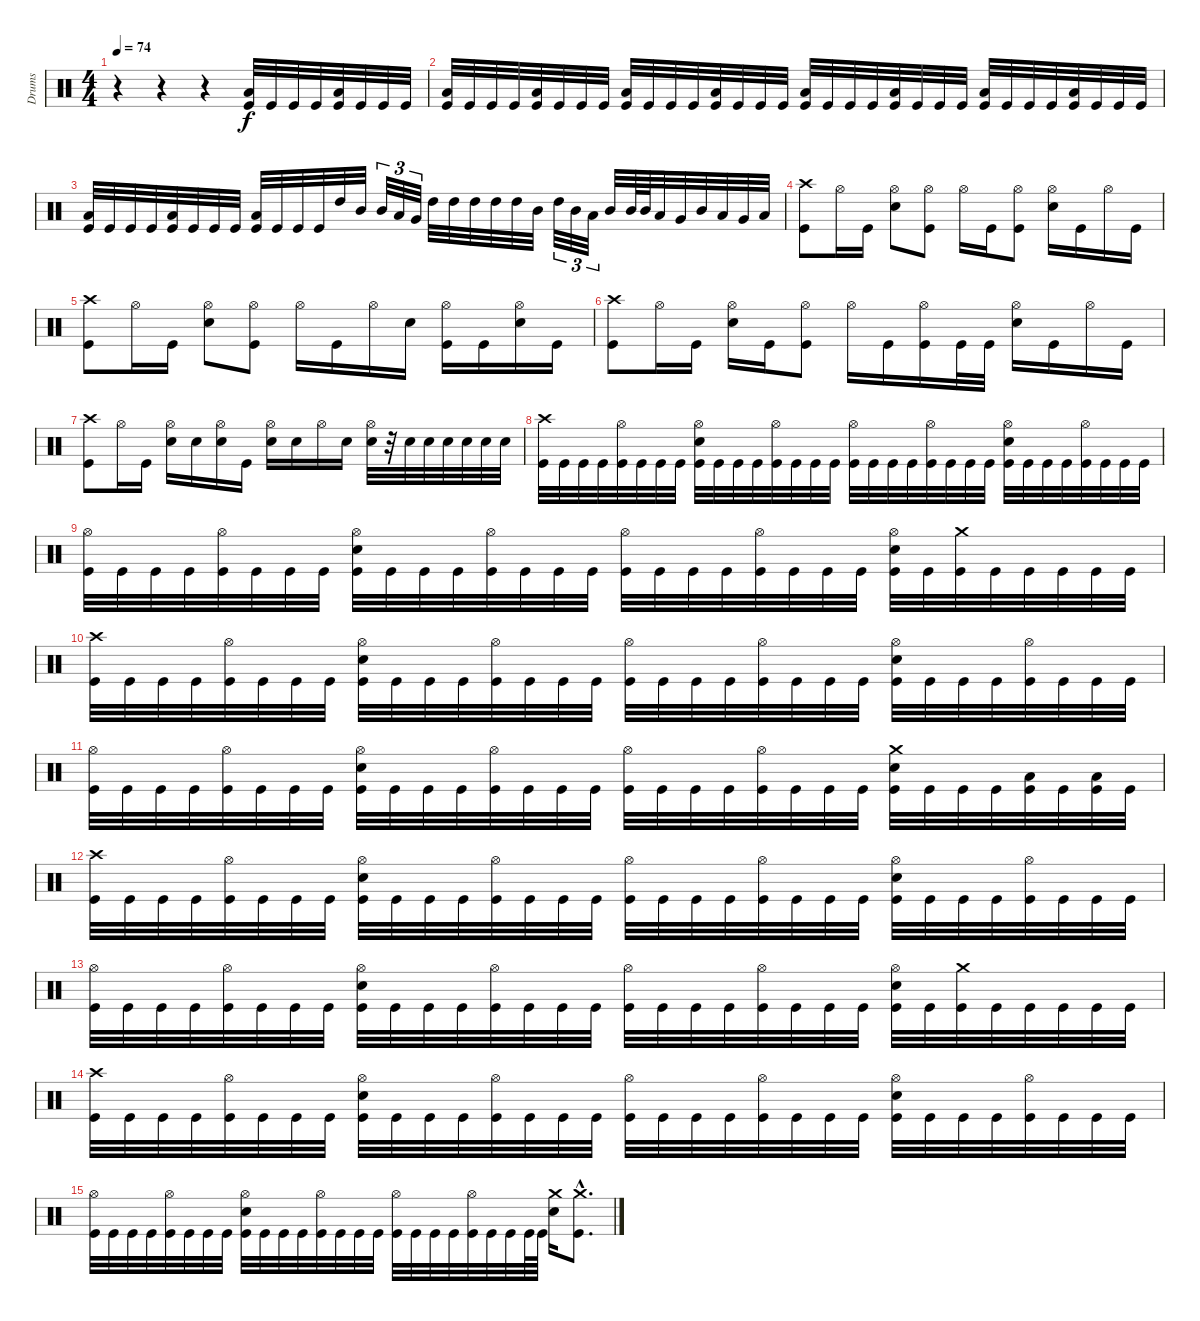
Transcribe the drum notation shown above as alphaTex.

\track ("Drums" "Drums") {instrument percussion}
\staff {score}
\articulation defaults
\ts (4 4)
\tempo 74
\clef neutral
\ks c
r.4{dy f volume 0} r.4 r.4 ("Low Floor Tom (hit)" "Kick (hit)").32{volume 13} "Kick (hit)".32 "Kick (hit)".32 "Kick (hit)".32 ("Low Floor Tom (hit)" "Kick (hit)").32 "Kick (hit)".32 "Kick (hit)".32 "Kick (hit)".32 |
("Low Floor Tom (hit)" "Kick (hit)").32 "Kick (hit)".32 "Kick (hit)".32 "Kick (hit)".32 ("Low Floor Tom (hit)" "Kick (hit)").32 "Kick (hit)".32 "Kick (hit)".32 "Kick (hit)".32 ("Low Floor Tom (hit)" "Kick (hit)").32 "Kick (hit)".32 "Kick (hit)".32 "Kick (hit)".32 ("Low Floor Tom (hit)" "Kick (hit)").32 "Kick (hit)".32 "Kick (hit)".32 "Kick (hit)".32 ("Low Floor Tom (hit)" "Kick (hit)").32 "Kick (hit)".32 "Kick (hit)".32 "Kick (hit)".32 ("Low Floor Tom (hit)" "Kick (hit)").32 "Kick (hit)".32 "Kick (hit)".32 "Kick (hit)".32 ("Low Floor Tom (hit)" "Kick (hit)").32 "Kick (hit)".32 "Kick (hit)".32 "Kick (hit)".32 ("Low Floor Tom (hit)" "Kick (hit)").32 "Kick (hit)".32 "Kick (hit)".32 "Kick (hit)".32 |
("Low Floor Tom (hit)" "Kick (hit)").32{volume 13} "Kick (hit)".32 "Kick (hit)".32 "Kick (hit)".32 ("Low Floor Tom (hit)" "Kick (hit)").32 "Kick (hit)".32 "Kick (hit)".32 "Kick (hit)".32 ("Low Floor Tom (hit)" "Kick (hit)").32 "Kick (hit)".32 "Kick (hit)".32 "Kick (hit)".32 "High Tom (hit)".32 "Mid Tom (hit)".32 "Mid Tom (hit)".32{tu (3 2)} "Low Tom (hit)".32{tu (3 2)} "Very Low Tom (hit)".32{tu (3 2)} "High Tom (hit)".32 "High Tom (hit)".32 "High Tom (hit)".32 "High Tom (hit)".32 "High Tom (hit)".32 "Mid Tom (hit)".32 "High Tom (hit)".32{tu (3 2)} "Mid Tom (hit)".32{tu (3 2)} "Low Tom (hit)".32{tu (3 2)} "Mid Tom (hit)".32 "Mid Tom (hit)".64 "Mid Tom (hit)".64 "Low Tom (hit)".32 "Very Low Tom (hit)".32 "Mid Tom (hit)".32 "Low Tom (hit)".32 "Very Low Tom (hit)".32 "Low Floor Tom (hit)".32 |
\section ("" "")
("Crash high (hit)" "Kick (hit)").8 "Hi-Hat (open)".16 "Kick (hit)".16 ("Hi-Hat (open)" "Snare (hit) 2").8 ("Hi-Hat (open)" "Kick (hit)").8 "Hi-Hat (open)".16 "Kick (hit)".16 ("Hi-Hat (open)" "Kick (hit)").8 ("Hi-Hat (open)" "Snare (hit) 2").16 "Kick (hit)".16 "Hi-Hat (open)".16 "Kick (hit)".16 |
("Crash high (hit)" "Kick (hit)").8 "Hi-Hat (open)".16 "Kick (hit)".16 ("Hi-Hat (open)" "Snare (hit) 2").8 ("Hi-Hat (open)" "Kick (hit)").8 "Hi-Hat (open)".16 "Kick (hit)".16 "Hi-Hat (open)".16 "Snare (hit) 2".16 ("Hi-Hat (open)" "Kick (hit)").16 "Kick (hit)".16 ("Hi-Hat (open)" "Snare (hit) 2").16 "Kick (hit)".16 |
("Crash high (hit)" "Kick (hit)").8 "Hi-Hat (open)".16 "Kick (hit)".16 ("Hi-Hat (open)" "Snare (hit) 2").16 "Kick (hit)".16 ("Hi-Hat (open)" "Kick (hit)").8 "Hi-Hat (open)".16 "Kick (hit)".16 ("Hi-Hat (open)" "Kick (hit)").16 "Kick (hit)".32 "Kick (hit)".32 ("Hi-Hat (open)" "Snare (hit) 2").16 "Kick (hit)".16 "Hi-Hat (open)".16 "Kick (hit)".16 |
("Crash high (hit)" "Kick (hit)").8 "Hi-Hat (open)".16 "Kick (hit)".16 ("Hi-Hat (open)" "Snare (hit) 2").16 "Snare (hit) 2".16 ("Hi-Hat (open)" "Snare (hit) 2").16 "Kick (hit)".16 ("Hi-Hat (open)" "Snare (hit) 2").16 "Snare (hit) 2".16 "Hi-Hat (open)".16 "Snare (hit) 2".16 ("Hi-Hat (open)" "Snare (hit) 2").32 r.32 "Snare (hit) 2".32 "Snare (hit) 2".32 "Snare (hit) 2".32 "Snare (hit) 2".32 "Snare (hit) 2".32 "Snare (hit) 2".32 |
\section ("" "")
("Crash high (hit)" "Kick (hit)").32 "Kick (hit)".32 "Kick (hit)".32 "Kick (hit)".32 ("Hi-Hat (open)" "Kick (hit)").32 "Kick (hit)".32 "Kick (hit)".32 "Kick (hit)".32 ("Hi-Hat (open)" "Snare (hit) 2" "Kick (hit)").32 "Kick (hit)".32 "Kick (hit)".32 "Kick (hit)".32 ("Hi-Hat (open)" "Kick (hit)").32 "Kick (hit)".32 "Kick (hit)".32 "Kick (hit)".32 ("Hi-Hat (open)" "Kick (hit)").32 "Kick (hit)".32 "Kick (hit)".32 "Kick (hit)".32 ("Hi-Hat (open)" "Kick (hit)").32 "Kick (hit)".32 "Kick (hit)".32 "Kick (hit)".32 ("Hi-Hat (open)" "Snare (hit) 2" "Kick (hit)").32 "Kick (hit)".32 "Kick (hit)".32 "Kick (hit)".32 ("Hi-Hat (open)" "Kick (hit)").32 "Kick (hit)".32 "Kick (hit)".32 "Kick (hit)".32 |
("Hi-Hat (open)" "Kick (hit)").32 "Kick (hit)".32 "Kick (hit)".32 "Kick (hit)".32 ("Hi-Hat (open)" "Kick (hit)").32 "Kick (hit)".32 "Kick (hit)".32 "Kick (hit)".32 ("Hi-Hat (open)" "Snare (hit) 2" "Kick (hit)").32 "Kick (hit)".32 "Kick (hit)".32 "Kick (hit)".32 ("Hi-Hat (open)" "Kick (hit)").32 "Kick (hit)".32 "Kick (hit)".32 "Kick (hit)".32 ("Hi-Hat (open)" "Kick (hit)").32 "Kick (hit)".32 "Kick (hit)".32 "Kick (hit)".32 ("Hi-Hat (open)" "Kick (hit)").32 "Kick (hit)".32 "Kick (hit)".32 "Kick (hit)".32 ("Hi-Hat (open)" "Snare (hit) 2" "Kick (hit)").32 "Kick (hit)".32 ("Crash medium (hit)" "Kick (hit)").32 "Kick (hit)".32 "Kick (hit)".32 "Kick (hit)".32 "Kick (hit)".32 "Kick (hit)".32 |
("Crash high (hit)" "Kick (hit)").32 "Kick (hit)".32 "Kick (hit)".32 "Kick (hit)".32 ("Hi-Hat (open)" "Kick (hit)").32 "Kick (hit)".32 "Kick (hit)".32 "Kick (hit)".32 ("Hi-Hat (open)" "Snare (hit) 2" "Kick (hit)").32 "Kick (hit)".32 "Kick (hit)".32 "Kick (hit)".32 ("Hi-Hat (open)" "Kick (hit)").32 "Kick (hit)".32 "Kick (hit)".32 "Kick (hit)".32 ("Hi-Hat (open)" "Kick (hit)").32 "Kick (hit)".32 "Kick (hit)".32 "Kick (hit)".32 ("Hi-Hat (open)" "Kick (hit)").32 "Kick (hit)".32 "Kick (hit)".32 "Kick (hit)".32 ("Hi-Hat (open)" "Snare (hit) 2" "Kick (hit)").32 "Kick (hit)".32 "Kick (hit)".32 "Kick (hit)".32 ("Hi-Hat (open)" "Kick (hit)").32 "Kick (hit)".32 "Kick (hit)".32 "Kick (hit)".32 |
("Hi-Hat (open)" "Kick (hit)").32 "Kick (hit)".32 "Kick (hit)".32 "Kick (hit)".32 ("Hi-Hat (open)" "Kick (hit)").32 "Kick (hit)".32 "Kick (hit)".32 "Kick (hit)".32 ("Hi-Hat (open)" "Snare (hit) 2" "Kick (hit)").32 "Kick (hit)".32 "Kick (hit)".32 "Kick (hit)".32 ("Hi-Hat (open)" "Kick (hit)").32 "Kick (hit)".32 "Kick (hit)".32 "Kick (hit)".32 ("Hi-Hat (open)" "Kick (hit)").32 "Kick (hit)".32 "Kick (hit)".32 "Kick (hit)".32 ("Hi-Hat (open)" "Kick (hit)").32 "Kick (hit)".32 "Kick (hit)".32 "Kick (hit)".32 ("Crash medium (hit)" "Snare (hit) 2" "Kick (hit)").32 "Kick (hit)".32 "Kick (hit)".32 "Kick (hit)".32 ("Low Floor Tom (hit)" "Kick (hit)").32 "Kick (hit)".32 ("Low Floor Tom (hit)" "Kick (hit)").32 "Kick (hit)".32 |
("Crash high (hit)" "Kick (hit)").32 "Kick (hit)".32 "Kick (hit)".32 "Kick (hit)".32 ("Hi-Hat (open)" "Kick (hit)").32 "Kick (hit)".32 "Kick (hit)".32 "Kick (hit)".32 ("Hi-Hat (open)" "Snare (hit) 2" "Kick (hit)").32 "Kick (hit)".32 "Kick (hit)".32 "Kick (hit)".32 ("Hi-Hat (open)" "Kick (hit)").32 "Kick (hit)".32 "Kick (hit)".32 "Kick (hit)".32 ("Hi-Hat (open)" "Kick (hit)").32 "Kick (hit)".32 "Kick (hit)".32 "Kick (hit)".32 ("Hi-Hat (open)" "Kick (hit)").32 "Kick (hit)".32 "Kick (hit)".32 "Kick (hit)".32 ("Hi-Hat (open)" "Snare (hit) 2" "Kick (hit)").32 "Kick (hit)".32 "Kick (hit)".32 "Kick (hit)".32 ("Hi-Hat (open)" "Kick (hit)").32 "Kick (hit)".32 "Kick (hit)".32 "Kick (hit)".32 |
("Hi-Hat (open)" "Kick (hit)").32 "Kick (hit)".32 "Kick (hit)".32 "Kick (hit)".32 ("Hi-Hat (open)" "Kick (hit)").32 "Kick (hit)".32 "Kick (hit)".32 "Kick (hit)".32 ("Hi-Hat (open)" "Snare (hit) 2" "Kick (hit)").32 "Kick (hit)".32 "Kick (hit)".32 "Kick (hit)".32 ("Hi-Hat (open)" "Kick (hit)").32 "Kick (hit)".32 "Kick (hit)".32 "Kick (hit)".32 ("Hi-Hat (open)" "Kick (hit)").32 "Kick (hit)".32 "Kick (hit)".32 "Kick (hit)".32 ("Hi-Hat (open)" "Kick (hit)").32 "Kick (hit)".32 "Kick (hit)".32 "Kick (hit)".32 ("Hi-Hat (open)" "Snare (hit) 2" "Kick (hit)").32 "Kick (hit)".32 ("Crash medium (hit)" "Kick (hit)").32 "Kick (hit)".32 "Kick (hit)".32 "Kick (hit)".32 "Kick (hit)".32 "Kick (hit)".32 |
("Crash high (hit)" "Kick (hit)").32 "Kick (hit)".32 "Kick (hit)".32 "Kick (hit)".32 ("Hi-Hat (open)" "Kick (hit)").32 "Kick (hit)".32 "Kick (hit)".32 "Kick (hit)".32 ("Hi-Hat (open)" "Snare (hit) 2" "Kick (hit)").32 "Kick (hit)".32 "Kick (hit)".32 "Kick (hit)".32 ("Hi-Hat (open)" "Kick (hit)").32 "Kick (hit)".32 "Kick (hit)".32 "Kick (hit)".32 ("Hi-Hat (open)" "Kick (hit)").32 "Kick (hit)".32 "Kick (hit)".32 "Kick (hit)".32 ("Hi-Hat (open)" "Kick (hit)").32 "Kick (hit)".32 "Kick (hit)".32 "Kick (hit)".32 ("Hi-Hat (open)" "Snare (hit) 2" "Kick (hit)").32 "Kick (hit)".32 "Kick (hit)".32 "Kick (hit)".32 ("Hi-Hat (open)" "Kick (hit)").32 "Kick (hit)".32 "Kick (hit)".32 "Kick (hit)".32 |
("Hi-Hat (open)" "Kick (hit)").32 "Kick (hit)".32 "Kick (hit)".32 "Kick (hit)".32 ("Hi-Hat (open)" "Kick (hit)").32 "Kick (hit)".32 "Kick (hit)".32 "Kick (hit)".32 ("Hi-Hat (open)" "Snare (hit) 2" "Kick (hit)").32 "Kick (hit)".32 "Kick (hit)".32 "Kick (hit)".32 ("Hi-Hat (open)" "Kick (hit)").32 "Kick (hit)".32 "Kick (hit)".32 "Kick (hit)".32 ("Hi-Hat (open)" "Kick (hit)").32 "Kick (hit)".32 "Kick (hit)".32 "Kick (hit)".32 ("Hi-Hat (open)" "Kick (hit)").32 "Kick (hit)".32 "Kick (hit)".32 "Kick (hit)".64 "Kick (hit)".64 ("Crash medium (hit)" "Snare (hit) 2").16 ("Crash medium (hit)"{hac} "Kick (hit)"{hac}).8{d}
